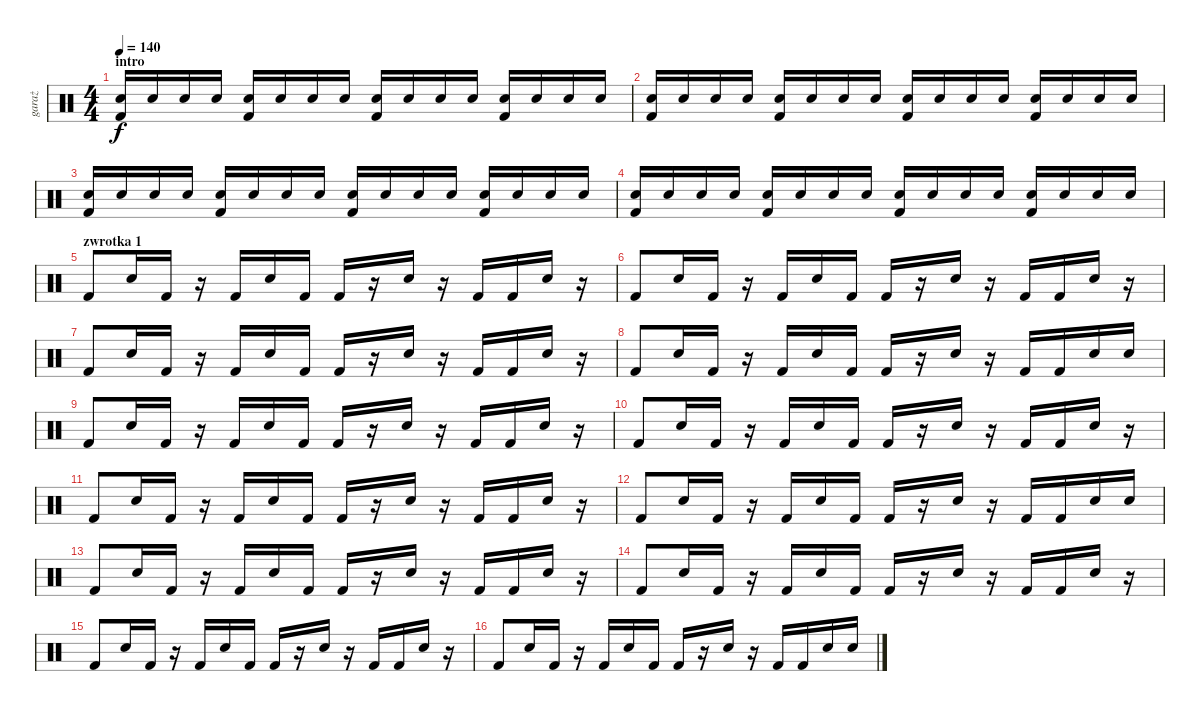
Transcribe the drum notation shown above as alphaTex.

\track ("garaż" "garaż") {instrument percussion}
\staff {score}
\articulation defaults
\ts (4 4)
\section ("" "intro")
\tempo 140
\clef neutral
\ks c
("Snare (hit) 2" "Kick (hit) 2").16{dy f} "Snare (hit) 2".16 "Snare (hit) 2".16 "Snare (hit) 2".16 ("Snare (hit) 2" "Kick (hit) 2").16 "Snare (hit) 2".16 "Snare (hit) 2".16 "Snare (hit) 2".16 ("Snare (hit) 2" "Kick (hit) 2").16 "Snare (hit) 2".16 "Snare (hit) 2".16 "Snare (hit) 2".16 ("Snare (hit) 2" "Kick (hit) 2").16 "Snare (hit) 2".16 "Snare (hit) 2".16 "Snare (hit) 2".16 |
("Snare (hit) 2" "Kick (hit) 2").16 "Snare (hit) 2".16 "Snare (hit) 2".16 "Snare (hit) 2".16 ("Snare (hit) 2" "Kick (hit) 2").16 "Snare (hit) 2".16 "Snare (hit) 2".16 "Snare (hit) 2".16 ("Snare (hit) 2" "Kick (hit) 2").16 "Snare (hit) 2".16 "Snare (hit) 2".16 "Snare (hit) 2".16 ("Snare (hit) 2" "Kick (hit) 2").16 "Snare (hit) 2".16 "Snare (hit) 2".16 "Snare (hit) 2".16 |
("Snare (hit) 2" "Kick (hit) 2").16 "Snare (hit) 2".16 "Snare (hit) 2".16 "Snare (hit) 2".16 ("Snare (hit) 2" "Kick (hit) 2").16 "Snare (hit) 2".16 "Snare (hit) 2".16 "Snare (hit) 2".16 ("Snare (hit) 2" "Kick (hit) 2").16 "Snare (hit) 2".16 "Snare (hit) 2".16 "Snare (hit) 2".16 ("Snare (hit) 2" "Kick (hit) 2").16 "Snare (hit) 2".16 "Snare (hit) 2".16 "Snare (hit) 2".16 |
("Snare (hit) 2" "Kick (hit) 2").16 "Snare (hit) 2".16 "Snare (hit) 2".16 "Snare (hit) 2".16 ("Snare (hit) 2" "Kick (hit) 2").16 "Snare (hit) 2".16 "Snare (hit) 2".16 "Snare (hit) 2".16 ("Snare (hit) 2" "Kick (hit) 2").16 "Snare (hit) 2".16 "Snare (hit) 2".16 "Snare (hit) 2".16 ("Snare (hit) 2" "Kick (hit) 2").16 "Snare (hit) 2".16 "Snare (hit) 2".16 "Snare (hit) 2".16 |
\section ("" "zwrotka 1")
"Kick (hit) 2".8 "Snare (hit) 2".16 "Kick (hit) 2".16 r.16 "Kick (hit) 2".16 "Snare (hit) 2".16 "Kick (hit) 2".16 "Kick (hit) 2".16 r.16 "Snare (hit) 2".16 r.16 "Kick (hit) 2".16 "Kick (hit) 2".16 "Snare (hit) 2".16 r.16 |
"Kick (hit) 2".8 "Snare (hit) 2".16 "Kick (hit) 2".16 r.16 "Kick (hit) 2".16 "Snare (hit) 2".16 "Kick (hit) 2".16 "Kick (hit) 2".16 r.16 "Snare (hit) 2".16 r.16 "Kick (hit) 2".16 "Kick (hit) 2".16 "Snare (hit) 2".16 r.16 |
"Kick (hit) 2".8 "Snare (hit) 2".16 "Kick (hit) 2".16 r.16 "Kick (hit) 2".16 "Snare (hit) 2".16 "Kick (hit) 2".16 "Kick (hit) 2".16 r.16 "Snare (hit) 2".16 r.16 "Kick (hit) 2".16 "Kick (hit) 2".16 "Snare (hit) 2".16 r.16 |
"Kick (hit) 2".8 "Snare (hit) 2".16 "Kick (hit) 2".16 r.16 "Kick (hit) 2".16 "Snare (hit) 2".16 "Kick (hit) 2".16 "Kick (hit) 2".16 r.16 "Snare (hit) 2".16 r.16 "Kick (hit) 2".16 "Kick (hit) 2".16 "Snare (hit) 2".16 "Snare (hit) 2".16 |
"Kick (hit) 2".8 "Snare (hit) 2".16 "Kick (hit) 2".16 r.16 "Kick (hit) 2".16 "Snare (hit) 2".16 "Kick (hit) 2".16 "Kick (hit) 2".16 r.16 "Snare (hit) 2".16 r.16 "Kick (hit) 2".16 "Kick (hit) 2".16 "Snare (hit) 2".16 r.16 |
"Kick (hit) 2".8 "Snare (hit) 2".16 "Kick (hit) 2".16 r.16 "Kick (hit) 2".16 "Snare (hit) 2".16 "Kick (hit) 2".16 "Kick (hit) 2".16 r.16 "Snare (hit) 2".16 r.16 "Kick (hit) 2".16 "Kick (hit) 2".16 "Snare (hit) 2".16 r.16 |
"Kick (hit) 2".8 "Snare (hit) 2".16 "Kick (hit) 2".16 r.16 "Kick (hit) 2".16 "Snare (hit) 2".16 "Kick (hit) 2".16 "Kick (hit) 2".16 r.16 "Snare (hit) 2".16 r.16 "Kick (hit) 2".16 "Kick (hit) 2".16 "Snare (hit) 2".16 r.16 |
"Kick (hit) 2".8 "Snare (hit) 2".16 "Kick (hit) 2".16 r.16 "Kick (hit) 2".16 "Snare (hit) 2".16 "Kick (hit) 2".16 "Kick (hit) 2".16 r.16 "Snare (hit) 2".16 r.16 "Kick (hit) 2".16 "Kick (hit) 2".16 "Snare (hit) 2".16 "Snare (hit) 2".16 |
"Kick (hit) 2".8 "Snare (hit) 2".16 "Kick (hit) 2".16 r.16 "Kick (hit) 2".16 "Snare (hit) 2".16 "Kick (hit) 2".16 "Kick (hit) 2".16 r.16 "Snare (hit) 2".16 r.16 "Kick (hit) 2".16 "Kick (hit) 2".16 "Snare (hit) 2".16 r.16 |
"Kick (hit) 2".8 "Snare (hit) 2".16 "Kick (hit) 2".16 r.16 "Kick (hit) 2".16 "Snare (hit) 2".16 "Kick (hit) 2".16 "Kick (hit) 2".16 r.16 "Snare (hit) 2".16 r.16 "Kick (hit) 2".16 "Kick (hit) 2".16 "Snare (hit) 2".16 r.16 |
"Kick (hit) 2".8 "Snare (hit) 2".16 "Kick (hit) 2".16 r.16 "Kick (hit) 2".16 "Snare (hit) 2".16 "Kick (hit) 2".16 "Kick (hit) 2".16 r.16 "Snare (hit) 2".16 r.16 "Kick (hit) 2".16 "Kick (hit) 2".16 "Snare (hit) 2".16 r.16 |
"Kick (hit) 2".8 "Snare (hit) 2".16 "Kick (hit) 2".16 r.16 "Kick (hit) 2".16 "Snare (hit) 2".16 "Kick (hit) 2".16 "Kick (hit) 2".16 r.16 "Snare (hit) 2".16 r.16 "Kick (hit) 2".16 "Kick (hit) 2".16 "Snare (hit) 2".16 "Snare (hit) 2".16
